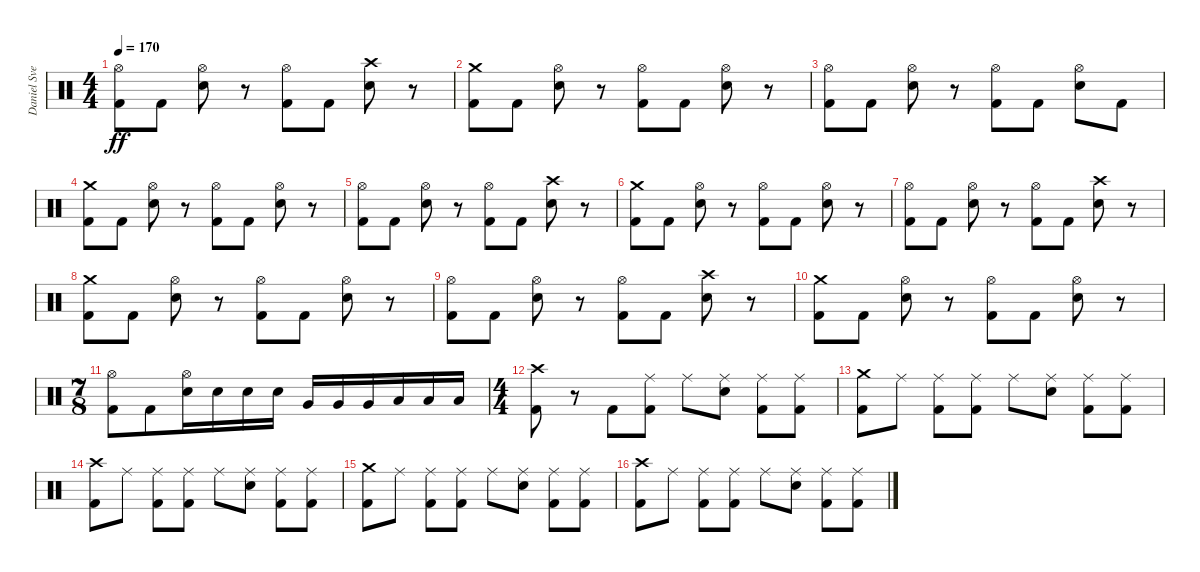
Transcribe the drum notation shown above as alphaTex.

\track ("Daniel Svensson" "Daniel Sve") {instrument percussion}
\staff {score}
\articulation defaults
\ts (4 4)
\tempo 170
\clef neutral
\ks c
("Hi-Hat (open)" "Kick (hit) 2").8{dy ff} "Kick (hit) 2".8 ("Hi-Hat (open)" "Electric Snare (hit)").8 r.8 ("Hi-Hat (open)" "Kick (hit) 2").8 "Kick (hit) 2".8 ("Crash high (hit)" "Electric Snare (hit)").8 r.8 |
("Crash medium (hit)" "Kick (hit) 2").8 "Kick (hit) 2".8 ("Hi-Hat (open)" "Electric Snare (hit)").8 r.8 ("Hi-Hat (open)" "Kick (hit) 2").8 "Kick (hit) 2".8 ("Hi-Hat (open)" "Electric Snare (hit)").8 r.8 |
("Hi-Hat (open)" "Kick (hit) 2").8 "Kick (hit) 2".8 ("Hi-Hat (open)" "Electric Snare (hit)").8 r.8 ("Hi-Hat (open)" "Kick (hit) 2").8 "Kick (hit) 2".8 ("Hi-Hat (open)" "Electric Snare (hit)").8 "Kick (hit) 2".8 |
("Crash medium (hit)" "Kick (hit) 2").8 "Kick (hit) 2".8 ("Hi-Hat (open)" "Electric Snare (hit)").8 r.8 ("Hi-Hat (open)" "Kick (hit) 2").8 "Kick (hit) 2".8 ("Hi-Hat (open)" "Electric Snare (hit)").8 r.8 |
("Hi-Hat (open)" "Kick (hit) 2").8 "Kick (hit) 2".8 ("Hi-Hat (open)" "Electric Snare (hit)").8 r.8 ("Hi-Hat (open)" "Kick (hit) 2").8 "Kick (hit) 2".8 ("Crash high (hit)" "Electric Snare (hit)").8 r.8 |
("Crash medium (hit)" "Kick (hit) 2").8 "Kick (hit) 2".8 ("Hi-Hat (open)" "Electric Snare (hit)").8 r.8 ("Hi-Hat (open)" "Kick (hit) 2").8 "Kick (hit) 2".8 ("Hi-Hat (open)" "Electric Snare (hit)").8 r.8 |
("Hi-Hat (open)" "Kick (hit) 2").8 "Kick (hit) 2".8 ("Hi-Hat (open)" "Electric Snare (hit)").8 r.8 ("Hi-Hat (open)" "Kick (hit) 2").8 "Kick (hit) 2".8 ("Crash high (hit)" "Electric Snare (hit)").8 r.8 |
("Crash medium (hit)" "Kick (hit) 2").8 "Kick (hit) 2".8 ("Hi-Hat (open)" "Electric Snare (hit)").8 r.8 ("Hi-Hat (open)" "Kick (hit) 2").8 "Kick (hit) 2".8 ("Hi-Hat (open)" "Electric Snare (hit)").8 r.8 |
("Hi-Hat (open)" "Kick (hit) 2").8 "Kick (hit) 2".8 ("Hi-Hat (open)" "Electric Snare (hit)").8 r.8 ("Hi-Hat (open)" "Kick (hit) 2").8 "Kick (hit) 2".8 ("Crash high (hit)" "Electric Snare (hit)").8 r.8 |
("Crash medium (hit)" "Kick (hit) 2").8 "Kick (hit) 2".8 ("Hi-Hat (open)" "Electric Snare (hit)").8 r.8 ("Hi-Hat (open)" "Kick (hit) 2").8 "Kick (hit) 2".8 ("Hi-Hat (open)" "Electric Snare (hit)").8 r.8 |
\ts (7 8)
("Hi-Hat (open)" "Kick (hit) 2").8 "Kick (hit) 2".8 ("Hi-Hat (open)" "Electric Snare (hit)").16 "Electric Snare (hit)".16 "Electric Snare (hit)".16 "Electric Snare (hit)".16 "Very Low Tom (hit)".16 "Very Low Tom (hit)".16 "Very Low Tom (hit)".16 "Low Floor Tom (hit)".16 "Low Floor Tom (hit)".16 "Low Floor Tom (hit)".16 |
\ts (4 4)
("Crash high (hit)" "Kick (hit) 2").8 r.8 "Kick (hit) 2".8 ("Ride (middle)" "Kick (hit) 2").8 "Ride (middle)".8 ("Ride (middle)" "Electric Snare (hit)").8 ("Ride (middle)" "Kick (hit) 2").8 ("Ride (middle)" "Kick (hit) 2").8 |
("Crash medium (hit)" "Kick (hit) 2").8 "Ride (middle)".8 ("Ride (middle)" "Kick (hit) 2").8 ("Ride (middle)" "Kick (hit) 2").8 "Ride (middle)".8 ("Ride (middle)" "Electric Snare (hit)").8 ("Ride (middle)" "Kick (hit) 2").8 ("Ride (middle)" "Kick (hit) 2").8 |
("Crash high (hit)" "Kick (hit) 2").8 "Ride (middle)".8 ("Ride (middle)" "Kick (hit) 2").8 ("Ride (middle)" "Kick (hit) 2").8 "Ride (middle)".8 ("Ride (middle)" "Electric Snare (hit)").8 ("Ride (middle)" "Kick (hit) 2").8 ("Ride (middle)" "Kick (hit) 2").8 |
("Crash medium (hit)" "Kick (hit) 2").8 "Ride (middle)".8 ("Ride (middle)" "Kick (hit) 2").8 ("Ride (middle)" "Kick (hit) 2").8 "Ride (middle)".8 ("Ride (middle)" "Electric Snare (hit)").8 ("Ride (middle)" "Kick (hit) 2").8 ("Ride (middle)" "Kick (hit) 2").8 |
("Crash high (hit)" "Kick (hit) 2").8 "Ride (middle)".8 ("Ride (middle)" "Kick (hit) 2").8 ("Ride (middle)" "Kick (hit) 2").8 "Ride (middle)".8 ("Ride (middle)" "Electric Snare (hit)").8 ("Ride (middle)" "Kick (hit) 2").8 ("Ride (middle)" "Kick (hit) 2").8
